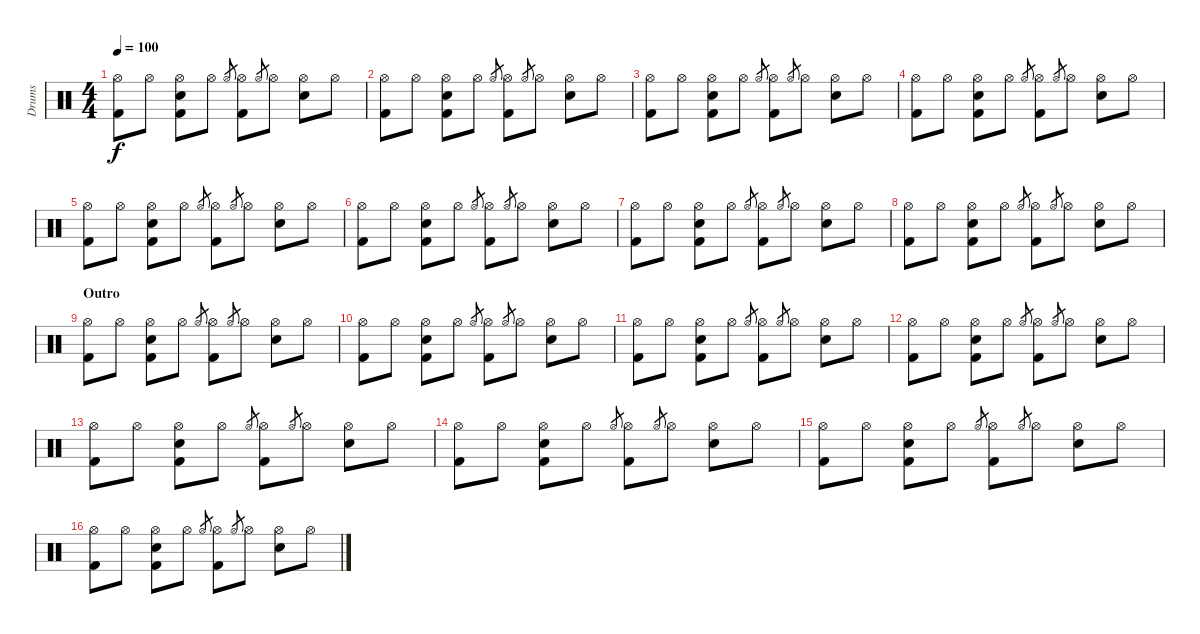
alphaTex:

\track ("Drums" "Drums") {instrument percussion}
\staff {score}
\articulation defaults
\ts (4 4)
\tempo 100
\clef neutral
\ks c
("Hi-Hat (open)" "Kick (hit) 2").8{dy f} "Hi-Hat (open)".8 ("Electric Snare (hit)" "Hi-Hat (open)" "Kick (hit) 2").8 "Hi-Hat (open)".8 "Hi-Hat (open)".8{gr} ("Hi-Hat (open)" "Kick (hit) 2").8 "Hi-Hat (open)".8{gr} "Hi-Hat (open)".8 ("Electric Snare (hit)" "Hi-Hat (open)").8 "Hi-Hat (open)".8 |
("Hi-Hat (open)" "Kick (hit) 2").8 "Hi-Hat (open)".8 ("Electric Snare (hit)" "Hi-Hat (open)" "Kick (hit) 2").8 "Hi-Hat (open)".8 "Hi-Hat (open)".8{gr} ("Hi-Hat (open)" "Kick (hit) 2").8 "Hi-Hat (open)".8{gr} "Hi-Hat (open)".8 ("Electric Snare (hit)" "Hi-Hat (open)").8 "Hi-Hat (open)".8 |
("Hi-Hat (open)" "Kick (hit) 2").8 "Hi-Hat (open)".8 ("Electric Snare (hit)" "Hi-Hat (open)" "Kick (hit) 2").8 "Hi-Hat (open)".8 "Hi-Hat (open)".8{gr} ("Hi-Hat (open)" "Kick (hit) 2").8 "Hi-Hat (open)".8{gr} "Hi-Hat (open)".8 ("Electric Snare (hit)" "Hi-Hat (open)").8 "Hi-Hat (open)".8 |
("Hi-Hat (open)" "Kick (hit) 2").8 "Hi-Hat (open)".8 ("Electric Snare (hit)" "Hi-Hat (open)" "Kick (hit) 2").8 "Hi-Hat (open)".8 "Hi-Hat (open)".8{gr} ("Hi-Hat (open)" "Kick (hit) 2").8 "Hi-Hat (open)".8{gr} "Hi-Hat (open)".8 ("Electric Snare (hit)" "Hi-Hat (open)").8 "Hi-Hat (open)".8 |
("Hi-Hat (open)" "Kick (hit) 2").8 "Hi-Hat (open)".8 ("Electric Snare (hit)" "Hi-Hat (open)" "Kick (hit) 2").8 "Hi-Hat (open)".8 "Hi-Hat (open)".8{gr} ("Hi-Hat (open)" "Kick (hit) 2").8 "Hi-Hat (open)".8{gr} "Hi-Hat (open)".8 ("Electric Snare (hit)" "Hi-Hat (open)").8 "Hi-Hat (open)".8 |
("Hi-Hat (open)" "Kick (hit) 2").8 "Hi-Hat (open)".8 ("Electric Snare (hit)" "Hi-Hat (open)" "Kick (hit) 2").8 "Hi-Hat (open)".8 "Hi-Hat (open)".8{gr} ("Hi-Hat (open)" "Kick (hit) 2").8 "Hi-Hat (open)".8{gr} "Hi-Hat (open)".8 ("Electric Snare (hit)" "Hi-Hat (open)").8 "Hi-Hat (open)".8 |
("Hi-Hat (open)" "Kick (hit) 2").8 "Hi-Hat (open)".8 ("Electric Snare (hit)" "Hi-Hat (open)" "Kick (hit) 2").8 "Hi-Hat (open)".8 "Hi-Hat (open)".8{gr} ("Hi-Hat (open)" "Kick (hit) 2").8 "Hi-Hat (open)".8{gr} "Hi-Hat (open)".8 ("Electric Snare (hit)" "Hi-Hat (open)").8 "Hi-Hat (open)".8 |
("Hi-Hat (open)" "Kick (hit) 2").8 "Hi-Hat (open)".8 ("Electric Snare (hit)" "Hi-Hat (open)" "Kick (hit) 2").8 "Hi-Hat (open)".8 "Hi-Hat (open)".8{gr} ("Hi-Hat (open)" "Kick (hit) 2").8 "Hi-Hat (open)".8{gr} "Hi-Hat (open)".8 ("Electric Snare (hit)" "Hi-Hat (open)").8 "Hi-Hat (open)".8 |
\section ("" "Outro")
("Hi-Hat (open)" "Kick (hit) 2").8 "Hi-Hat (open)".8 ("Electric Snare (hit)" "Hi-Hat (open)" "Kick (hit) 2").8 "Hi-Hat (open)".8 "Hi-Hat (open)".8{gr} ("Hi-Hat (open)" "Kick (hit) 2").8 "Hi-Hat (open)".8{gr} "Hi-Hat (open)".8 ("Electric Snare (hit)" "Hi-Hat (open)").8 "Hi-Hat (open)".8 |
("Hi-Hat (open)" "Kick (hit) 2").8 "Hi-Hat (open)".8 ("Electric Snare (hit)" "Hi-Hat (open)" "Kick (hit) 2").8 "Hi-Hat (open)".8 "Hi-Hat (open)".8{gr} ("Hi-Hat (open)" "Kick (hit) 2").8 "Hi-Hat (open)".8{gr} "Hi-Hat (open)".8 ("Electric Snare (hit)" "Hi-Hat (open)").8 "Hi-Hat (open)".8 |
("Hi-Hat (open)" "Kick (hit) 2").8 "Hi-Hat (open)".8 ("Electric Snare (hit)" "Hi-Hat (open)" "Kick (hit) 2").8 "Hi-Hat (open)".8 "Hi-Hat (open)".8{gr} ("Hi-Hat (open)" "Kick (hit) 2").8 "Hi-Hat (open)".8{gr} "Hi-Hat (open)".8 ("Electric Snare (hit)" "Hi-Hat (open)").8 "Hi-Hat (open)".8 |
("Hi-Hat (open)" "Kick (hit) 2").8 "Hi-Hat (open)".8 ("Electric Snare (hit)" "Hi-Hat (open)" "Kick (hit) 2").8 "Hi-Hat (open)".8 "Hi-Hat (open)".8{gr} ("Hi-Hat (open)" "Kick (hit) 2").8 "Hi-Hat (open)".8{gr} "Hi-Hat (open)".8 ("Electric Snare (hit)" "Hi-Hat (open)").8 "Hi-Hat (open)".8 |
("Hi-Hat (open)" "Kick (hit) 2").8 "Hi-Hat (open)".8 ("Electric Snare (hit)" "Hi-Hat (open)" "Kick (hit) 2").8 "Hi-Hat (open)".8 "Hi-Hat (open)".8{gr} ("Hi-Hat (open)" "Kick (hit) 2").8 "Hi-Hat (open)".8{gr} "Hi-Hat (open)".8 ("Electric Snare (hit)" "Hi-Hat (open)").8 "Hi-Hat (open)".8 |
("Hi-Hat (open)" "Kick (hit) 2").8 "Hi-Hat (open)".8 ("Electric Snare (hit)" "Hi-Hat (open)" "Kick (hit) 2").8 "Hi-Hat (open)".8 "Hi-Hat (open)".8{gr} ("Hi-Hat (open)" "Kick (hit) 2").8 "Hi-Hat (open)".8{gr} "Hi-Hat (open)".8 ("Electric Snare (hit)" "Hi-Hat (open)").8 "Hi-Hat (open)".8 |
("Hi-Hat (open)" "Kick (hit) 2").8 "Hi-Hat (open)".8 ("Electric Snare (hit)" "Hi-Hat (open)" "Kick (hit) 2").8 "Hi-Hat (open)".8 "Hi-Hat (open)".8{gr} ("Hi-Hat (open)" "Kick (hit) 2").8 "Hi-Hat (open)".8{gr} "Hi-Hat (open)".8 ("Electric Snare (hit)" "Hi-Hat (open)").8 "Hi-Hat (open)".8 |
("Hi-Hat (open)" "Kick (hit) 2").8 "Hi-Hat (open)".8 ("Electric Snare (hit)" "Hi-Hat (open)" "Kick (hit) 2").8 "Hi-Hat (open)".8 "Hi-Hat (open)".8{gr} ("Hi-Hat (open)" "Kick (hit) 2").8 "Hi-Hat (open)".8{gr} "Hi-Hat (open)".8 ("Electric Snare (hit)" "Hi-Hat (open)").8 "Hi-Hat (open)".8
